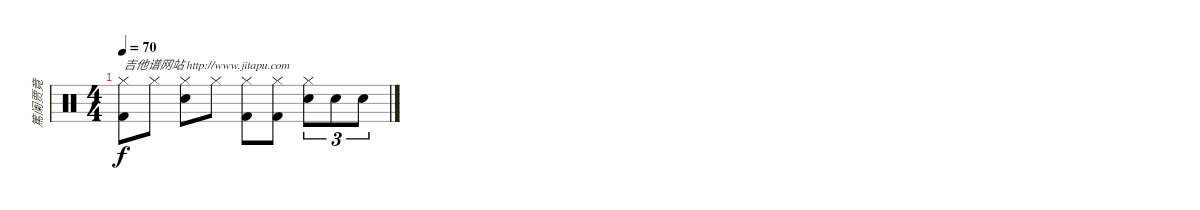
\track ("篤阑贾竟" "篤阑贾竟") {instrument percussion}
\staff {score}
\articulation defaults
\ts (4 4)
\tempo 70
\clef neutral
\ks c
("Hi-Hat (closed)" "Kick (hit) 2").8{txt "吉他谱网站 http://www.jitapu.com" dy f} "Hi-Hat (closed)".8 ("Hi-Hat (closed)" "Snare (hit) 2").8 "Hi-Hat (closed)".8 ("Hi-Hat (closed)" "Kick (hit) 2").8 ("Hi-Hat (closed)" "Kick (hit) 2").8 ("Hi-Hat (closed)" "Snare (hit) 2").8{tu (3 2)} "Snare (hit) 2".8{tu (3 2)} "Snare (hit) 2".8{tu (3 2)}
